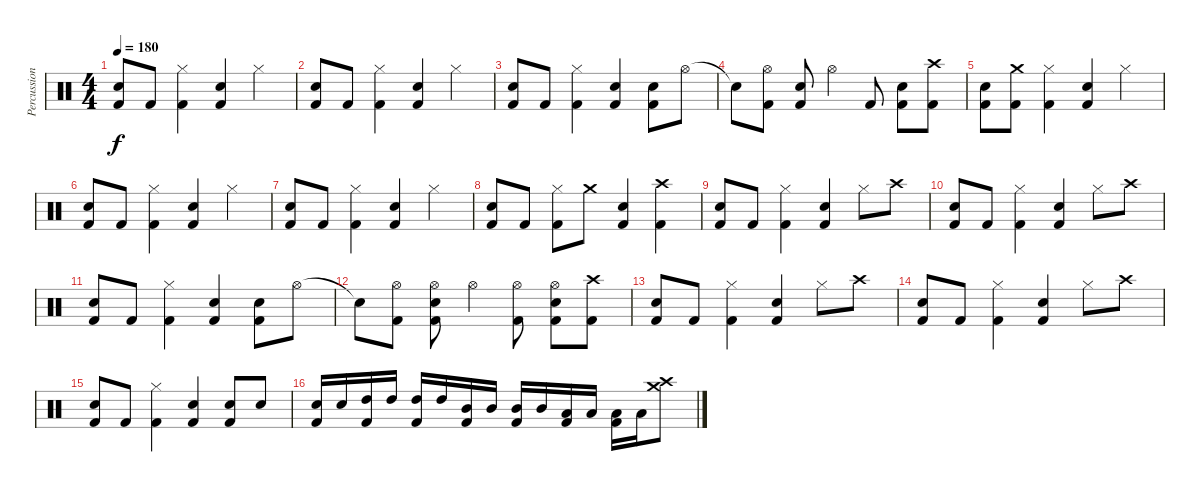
\track ("Percussion" "Percussion") {instrument percussion}
\staff {score}
\articulation defaults
\ts (4 4)
\tempo 180
\clef neutral
\ks c
("Snare (hit) 2" "Kick (hit) 2").8{dy f} "Kick (hit) 2".8 ("Hi-Hat (closed)" "Kick (hit) 2").4 ("Snare (hit) 2" "Kick (hit) 2").4 "Hi-Hat (closed)".4 |
("Snare (hit) 2" "Kick (hit) 2").8 "Kick (hit) 2".8 ("Hi-Hat (closed)" "Kick (hit) 2").4 ("Snare (hit) 2" "Kick (hit) 2").4 "Hi-Hat (closed)".4 |
("Snare (hit) 2" "Kick (hit) 2").8 "Kick (hit) 2".8 ("Hi-Hat (closed)" "Kick (hit) 2").4 ("Snare (hit) 2" "Kick (hit) 2").4 ("Snare (hit) 2" "Kick (hit) 2").8 "Hi-Hat (open)".8 |
"Snare (hit)"{t}.8 ("Hi-Hat (open)" "Kick (hit) 2").8 ("Snare (hit) 2" "Kick (hit) 2").8 "Hi-Hat (open)".4 "Kick (hit) 2".8 ("Snare (hit) 2" "Kick (hit) 2").8 ("Crash high (hit)" "Kick (hit) 2").8 |
("Snare (hit) 2" "Kick (hit) 2").8 ("Crash medium (hit)" "Kick (hit) 2").8 ("Hi-Hat (closed)" "Kick (hit) 2").4 ("Snare (hit) 2" "Kick (hit) 2").4 "Hi-Hat (closed)".4 |
("Snare (hit) 2" "Kick (hit) 2").8 "Kick (hit) 2".8 ("Hi-Hat (closed)" "Kick (hit) 2").4 ("Snare (hit) 2" "Kick (hit) 2").4 "Hi-Hat (closed)".4 |
("Snare (hit) 2" "Kick (hit) 2").8 "Kick (hit) 2".8 ("Hi-Hat (closed)" "Kick (hit) 2").4 ("Snare (hit) 2" "Kick (hit) 2").4 "Hi-Hat (closed)".4 |
("Snare (hit) 2" "Kick (hit) 2").8 "Kick (hit) 2".8 ("Hi-Hat (closed)" "Kick (hit) 2").8 "Crash medium (hit)".8 ("Snare (hit) 2" "Kick (hit) 2").4 ("Crash high (hit)" "Kick (hit) 2").4 |
("Snare (hit) 2" "Kick (hit) 2").8 "Kick (hit) 2".8 ("Hi-Hat (closed)" "Kick (hit) 2").4 ("Snare (hit) 2" "Kick (hit) 2").4 "Hi-Hat (closed)".8 "Crash high (hit)".8 |
("Snare (hit) 2" "Kick (hit) 2").8 "Kick (hit) 2".8 ("Hi-Hat (closed)" "Kick (hit) 2").4 ("Snare (hit) 2" "Kick (hit) 2").4 "Hi-Hat (closed)".8 "Crash high (hit)".8 |
("Snare (hit) 2" "Kick (hit) 2").8 "Kick (hit) 2".8 ("Hi-Hat (closed)" "Kick (hit) 2").4 ("Snare (hit) 2" "Kick (hit) 2").4 ("Snare (hit) 2" "Kick (hit) 2").8 "Hi-Hat (open)".8 |
"Snare (hit)"{t}.8 ("Hi-Hat (open)" "Kick (hit) 2").8 ("Hi-Hat (open)" "Snare (hit) 2" "Kick (hit) 2").8 "Hi-Hat (open)".4 ("Hi-Hat (open)" "Kick (hit) 2").8 ("Hi-Hat (open)" "Snare (hit) 2" "Kick (hit) 2").8 ("Crash high (hit)" "Kick (hit) 2").8 |
("Snare (hit) 2" "Kick (hit) 2").8 "Kick (hit) 2".8 ("Hi-Hat (closed)" "Kick (hit) 2").4 ("Snare (hit) 2" "Kick (hit) 2").4 "Hi-Hat (closed)".8 "Crash high (hit)".8 |
("Snare (hit) 2" "Kick (hit) 2").8 "Kick (hit) 2".8 ("Hi-Hat (closed)" "Kick (hit) 2").4 ("Snare (hit) 2" "Kick (hit) 2").4 "Hi-Hat (closed)".8 "Crash high (hit)".8 |
("Snare (hit) 2" "Kick (hit) 2").8 "Kick (hit) 2".8 ("Hi-Hat (closed)" "Kick (hit) 2").4 ("Snare (hit) 2" "Kick (hit) 2").4 ("Snare (hit) 2" "Kick (hit) 2").8 "Snare (hit) 2".8 |
("Snare (hit) 2" "Kick (hit) 2").16 "Snare (hit) 2".16 ("High Tom (hit)" "Kick (hit) 2").16 "High Tom (hit)".16 ("High Tom (hit)" "Kick (hit) 2").16 "High Tom (hit)".16 ("Mid Tom (hit)" "Kick (hit) 2").16 "Mid Tom (hit)".16 ("Mid Tom (hit)" "Kick (hit) 2").16 "Mid Tom (hit)".16 ("Low Tom (hit)" "Kick (hit) 2").16 "Low Tom (hit)".16 ("Low Tom (hit)" "Kick (hit) 2").16 "Low Tom (hit)".16 ("Crash high (hit)" "Crash medium (hit)").8
